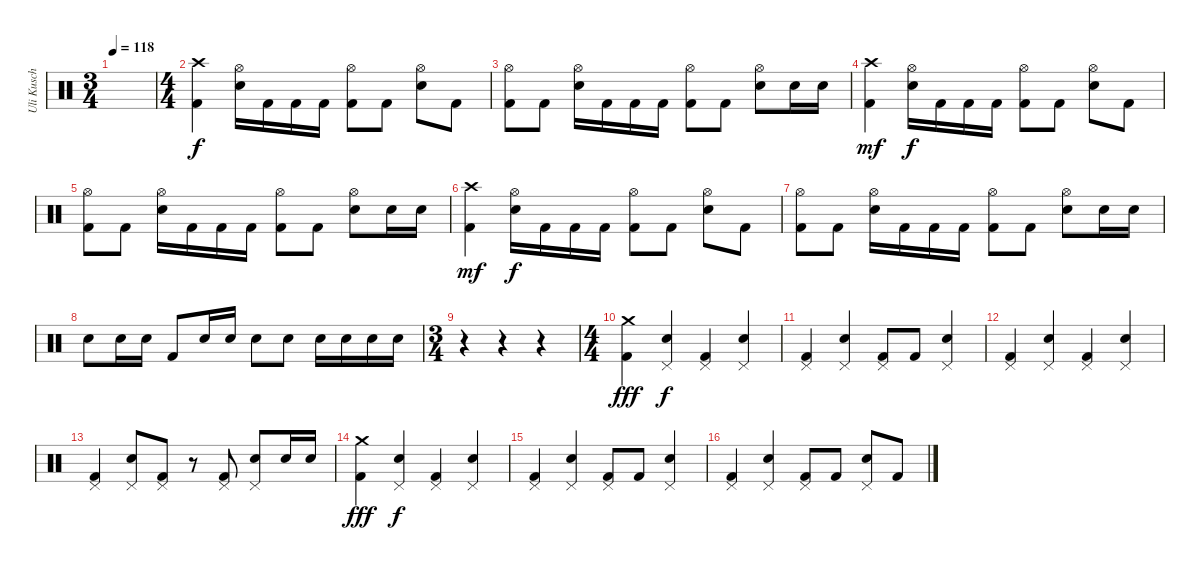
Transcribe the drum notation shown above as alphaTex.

\track ("Uli Kusch" "Uli Kusch") {instrument percussion}
\staff {score}
\articulation defaults
\ts (3 4)
\tempo 118
\clef neutral
\ks c
|
\ts (4 4)
("Kick (hit) 2" "Crash high (hit)").4 ("Electric Snare (hit)" "Hi-Hat (open)").16{dy f} "Kick (hit) 2".16 "Kick (hit) 2".16 "Kick (hit) 2".16 ("Kick (hit) 2" "Hi-Hat (open)").8 "Kick (hit) 2".8 ("Electric Snare (hit)" "Hi-Hat (open)").8 "Kick (hit) 2".8 |
("Kick (hit) 2" "Hi-Hat (open)").8 "Kick (hit) 2".8 ("Electric Snare (hit)" "Hi-Hat (open)").16 "Kick (hit) 2".16 "Kick (hit) 2".16 "Kick (hit) 2".16 ("Kick (hit) 2" "Hi-Hat (open)").8 "Kick (hit) 2".8 ("Electric Snare (hit)" "Hi-Hat (open)").8 "Electric Snare (hit)".16 "Electric Snare (hit)".16 |
("Kick (hit) 2" "Crash high (hit)").4{dy mf} ("Electric Snare (hit)" "Hi-Hat (open)").16{dy f} "Kick (hit) 2".16 "Kick (hit) 2".16 "Kick (hit) 2".16 ("Kick (hit) 2" "Hi-Hat (open)").8 "Kick (hit) 2".8 ("Electric Snare (hit)" "Hi-Hat (open)").8 "Kick (hit) 2".8 |
("Kick (hit) 2" "Hi-Hat (open)").8 "Kick (hit) 2".8 ("Electric Snare (hit)" "Hi-Hat (open)").16 "Kick (hit) 2".16 "Kick (hit) 2".16 "Kick (hit) 2".16 ("Kick (hit) 2" "Hi-Hat (open)").8 "Kick (hit) 2".8 ("Electric Snare (hit)" "Hi-Hat (open)").8 "Electric Snare (hit)".16 "Electric Snare (hit)".16 |
("Kick (hit) 2" "Crash high (hit)").4{dy mf} ("Electric Snare (hit)" "Hi-Hat (open)").16{dy f} "Kick (hit) 2".16 "Kick (hit) 2".16 "Kick (hit) 2".16 ("Kick (hit) 2" "Hi-Hat (open)").8 "Kick (hit) 2".8 ("Electric Snare (hit)" "Hi-Hat (open)").8 "Kick (hit) 2".8 |
("Kick (hit) 2" "Hi-Hat (open)").8 "Kick (hit) 2".8 ("Electric Snare (hit)" "Hi-Hat (open)").16 "Kick (hit) 2".16 "Kick (hit) 2".16 "Kick (hit) 2".16 ("Kick (hit) 2" "Hi-Hat (open)").8 "Kick (hit) 2".8 ("Electric Snare (hit)" "Hi-Hat (open)").8 "Electric Snare (hit)".16 "Electric Snare (hit)".16 |
"Electric Snare (hit)".8 "Electric Snare (hit)".16 "Electric Snare (hit)".16 "Kick (hit) 2".8 "Electric Snare (hit)".16 "Electric Snare (hit)".16 "Electric Snare (hit)".8 "Electric Snare (hit)".8 "Electric Snare (hit)".16 "Electric Snare (hit)".16 "Electric Snare (hit)".16 "Electric Snare (hit)".16 |
\ts (3 4)
r.4 r.4 r.4 |
\ts (4 4)
("Crash medium (hit)" "Kick (hit) 2").4{dy fff} ("Electric Snare (hit)" "Pedal Hi-Hat (hit)").4{dy f} ("Kick (hit) 2" "Pedal Hi-Hat (hit)").4 ("Electric Snare (hit)" "Pedal Hi-Hat (hit)").4 |
("Kick (hit) 2" "Pedal Hi-Hat (hit)").4 ("Electric Snare (hit)" "Pedal Hi-Hat (hit)").4 ("Kick (hit) 2" "Pedal Hi-Hat (hit)").8 "Kick (hit) 2".8 ("Electric Snare (hit)" "Pedal Hi-Hat (hit)").4 |
("Kick (hit) 2" "Pedal Hi-Hat (hit)").4 ("Electric Snare (hit)" "Pedal Hi-Hat (hit)").4 ("Kick (hit) 2" "Pedal Hi-Hat (hit)").4 ("Electric Snare (hit)" "Pedal Hi-Hat (hit)").4 |
("Kick (hit) 2" "Pedal Hi-Hat (hit)").4 ("Electric Snare (hit)" "Pedal Hi-Hat (hit)").8 ("Kick (hit) 2" "Pedal Hi-Hat (hit)").8 r.8 ("Kick (hit) 2" "Pedal Hi-Hat (hit)").8 ("Electric Snare (hit)" "Pedal Hi-Hat (hit)").8 "Electric Snare (hit)".16 "Electric Snare (hit)".16 |
("Crash medium (hit)" "Kick (hit) 2").4{dy fff} ("Electric Snare (hit)" "Pedal Hi-Hat (hit)").4{dy f} ("Kick (hit) 2" "Pedal Hi-Hat (hit)").4 ("Electric Snare (hit)" "Pedal Hi-Hat (hit)").4 |
("Kick (hit) 2" "Pedal Hi-Hat (hit)").4 ("Electric Snare (hit)" "Pedal Hi-Hat (hit)").4 ("Kick (hit) 2" "Pedal Hi-Hat (hit)").8 "Kick (hit) 2".8 ("Electric Snare (hit)" "Pedal Hi-Hat (hit)").4 |
("Kick (hit) 2" "Pedal Hi-Hat (hit)").4 ("Electric Snare (hit)" "Pedal Hi-Hat (hit)").4 ("Kick (hit) 2" "Pedal Hi-Hat (hit)").8 "Kick (hit) 2".8 ("Pedal Hi-Hat (hit)" "Electric Snare (hit)").8 "Kick (hit) 2".8
